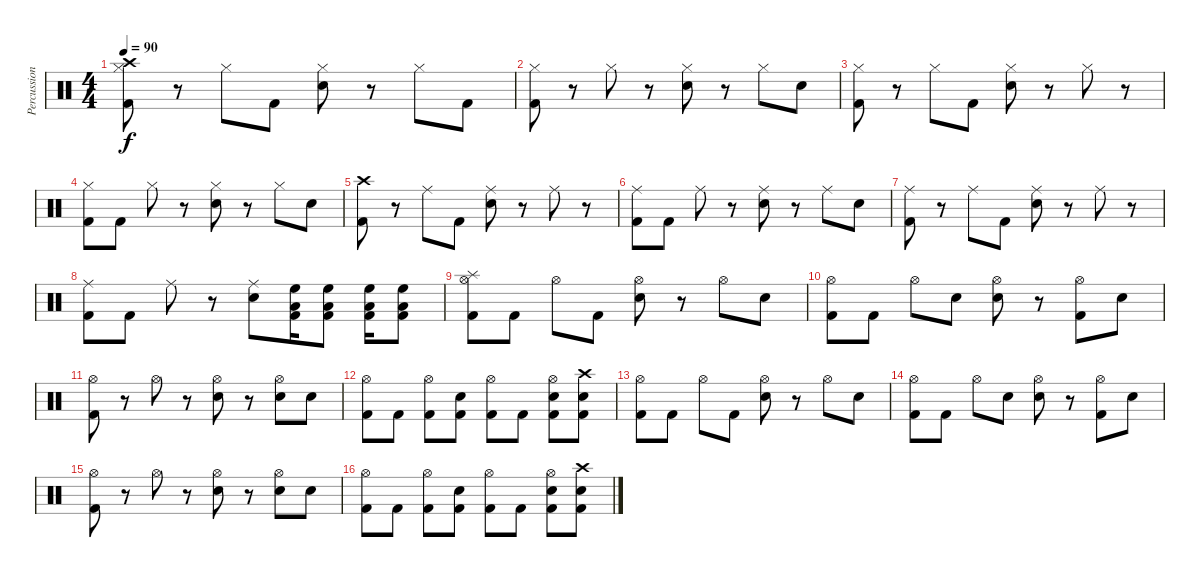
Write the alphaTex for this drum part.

\track ("Percussion" "Percussion") {instrument percussion}
\staff {score}
\articulation defaults
\ts (4 4)
\tempo 90
\clef neutral
\ks c
("Kick (hit) 2" "Hi-Hat (closed)" "Crash high (hit)").8{dy f} r.8 "Hi-Hat (closed)".8 "Kick (hit) 2".8 ("Snare (hit) 2" "Hi-Hat (closed)").8 r.8 "Hi-Hat (closed)".8 "Kick (hit) 2".8 |
("Kick (hit) 2" "Hi-Hat (closed)").8 r.8 "Hi-Hat (closed)".8 r.8 ("Snare (hit) 2" "Hi-Hat (closed)").8 r.8 "Hi-Hat (closed)".8 "Snare (hit) 2".8 |
("Kick (hit) 2" "Hi-Hat (closed)").8 r.8 "Hi-Hat (closed)".8 "Kick (hit) 2".8 ("Snare (hit) 2" "Hi-Hat (closed)").8 r.8 "Hi-Hat (closed)".8 r.8 |
("Kick (hit) 2" "Hi-Hat (closed)").8 "Kick (hit) 2".8 "Hi-Hat (closed)".8 r.8 ("Snare (hit) 2" "Hi-Hat (closed)").8 r.8 "Hi-Hat (closed)".8 "Snare (hit) 2".8 |
("Kick (hit) 2" "Crash high (hit)").8 r.8 "Ride (middle)".8 "Kick (hit) 2".8 ("Snare (hit) 2" "Ride (middle)").8 r.8 "Ride (middle)".8 r.8 |
("Kick (hit) 2" "Ride (middle)").8 "Kick (hit) 2".8 "Ride (middle)".8 r.8 ("Snare (hit) 2" "Ride (middle)").8 r.8 "Ride (middle)".8 "Snare (hit) 2".8 |
("Kick (hit) 2" "Ride (middle)").8 r.8 "Ride (middle)".8 "Kick (hit) 2".8 ("Snare (hit) 2" "Ride (middle)").8 r.8 "Ride (middle)".8 r.8 |
("Kick (hit) 2" "Ride (middle)").8 "Kick (hit) 2".8 "Ride (middle)".8 r.8 ("Snare (hit) 2" "Ride (middle)").8 ("Kick (hit) 2" "Low Tom (hit)" "High Floor Tom (hit)").16 ("Kick (hit) 2" "Low Tom (hit)" "High Floor Tom (hit)").8 ("Low Tom (hit)" "High Floor Tom (hit)" "Kick (hit) 2").16 ("Low Tom (hit)" "High Floor Tom (hit)" "Kick (hit) 2").8 |
("Kick (hit) 2" "Hi-Hat (open)" "Splash (hit)").8 "Kick (hit) 2".8 "Hi-Hat (open)".8 "Kick (hit) 2".8 ("Snare (hit) 2" "Hi-Hat (open)").8 r.8 "Hi-Hat (open)".8 "Snare (hit) 2".8 |
("Kick (hit) 2" "Hi-Hat (open)").8 "Kick (hit) 2".8 "Hi-Hat (open)".8 "Snare (hit) 2".8 ("Snare (hit) 2" "Hi-Hat (open)").8 r.8 ("Kick (hit) 2" "Hi-Hat (open)").8 "Snare (hit) 2".8 |
("Kick (hit) 2" "Hi-Hat (open)").8 r.8 "Hi-Hat (open)".8 r.8 ("Snare (hit) 2" "Hi-Hat (open)").8 r.8 ("Snare (hit) 2" "Hi-Hat (open)").8 "Snare (hit) 2".8 |
("Kick (hit) 2" "Hi-Hat (open)").8 "Kick (hit) 2".8 ("Kick (hit) 2" "Hi-Hat (open)").8 ("Kick (hit) 2" "Snare (hit) 2").8 ("Kick (hit) 2" "Hi-Hat (open)").8 "Kick (hit) 2".8 ("Kick (hit) 2" "Hi-Hat (open)" "Snare (hit) 2").8 ("Kick (hit) 2" "Snare (hit) 2" "Crash high (hit)").8 |
("Kick (hit) 2" "Hi-Hat (open)").8 "Kick (hit) 2".8 "Hi-Hat (open)".8 "Kick (hit) 2".8 ("Snare (hit) 2" "Hi-Hat (open)").8 r.8 "Hi-Hat (open)".8 "Snare (hit) 2".8 |
("Kick (hit) 2" "Hi-Hat (open)").8 "Kick (hit) 2".8 "Hi-Hat (open)".8 "Snare (hit) 2".8 ("Snare (hit) 2" "Hi-Hat (open)").8 r.8 ("Kick (hit) 2" "Hi-Hat (open)").8 "Snare (hit) 2".8 |
("Kick (hit) 2" "Hi-Hat (open)").8 r.8 "Hi-Hat (open)".8 r.8 ("Snare (hit) 2" "Hi-Hat (open)").8 r.8 ("Snare (hit) 2" "Hi-Hat (open)").8 "Snare (hit) 2".8 |
("Kick (hit) 2" "Hi-Hat (open)").8 "Kick (hit) 2".8 ("Kick (hit) 2" "Hi-Hat (open)").8 ("Kick (hit) 2" "Snare (hit) 2").8 ("Kick (hit) 2" "Hi-Hat (open)").8 "Kick (hit) 2".8 ("Kick (hit) 2" "Hi-Hat (open)" "Snare (hit) 2").8 ("Kick (hit) 2" "Snare (hit) 2" "Crash high (hit)").8
